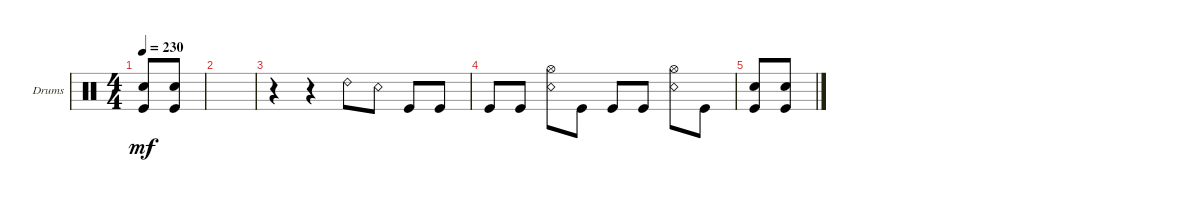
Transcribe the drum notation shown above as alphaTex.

\bracketExtendMode groupsimilarinstruments
\firstSystemTrackNameOrientation horizontal
\otherSystemsTrackNameOrientation horizontal
\track ("Drumkit" "Drums") {instrument percussion}
\staff {score}
\articulation defaults
\ts (4 4)
\tempo 230
\clef neutral
\ks c
("Kick (hit)" "Snare (hit) 2").8{dy mf} ("Kick (hit)" "Snare (hit) 2").8 |
|
r.4 r.4 "Ride (bell) 2".8 "Snare (rim shot)".8 "Kick (hit)".8 "Kick (hit)".8 |
"Kick (hit)".8 "Kick (hit)".8 ("Snare (rim shot)" "Hi-Hat (open)").8 "Kick (hit)".8 "Kick (hit)".8 "Kick (hit)".8 ("Snare (rim shot)" "Hi-Hat (open)").8 "Kick (hit)".8 |
("Kick (hit)" "Snare (hit) 2").8 ("Kick (hit)" "Snare (hit) 2").8
